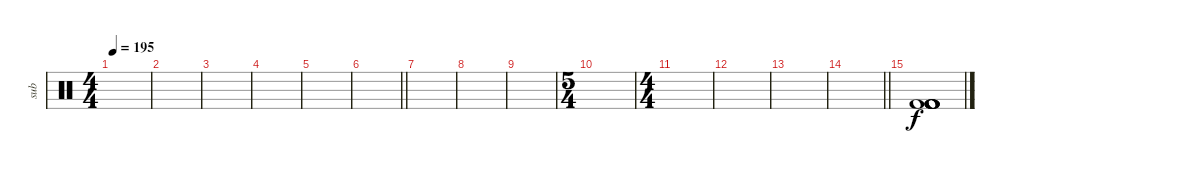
\track ("sub" "sub") {instrument percussion}
\staff {score}
\articulation defaults
\ts (4 4)
\tempo 195
\clef neutral
\ks c
|
|
|
|
|
\barLineRight lightlight
|
\section ("" "")
|
|
|
\ts (5 4)
|
\ts (4 4)
|
|
|
\barLineRight lightlight
|
\section ("" "")
("Kick (hit) 2" "Kick (hit) 2" "Kick (hit) 2" "Kick (hit) 2" "Kick (hit) 2" "Kick (hit) 2").1
